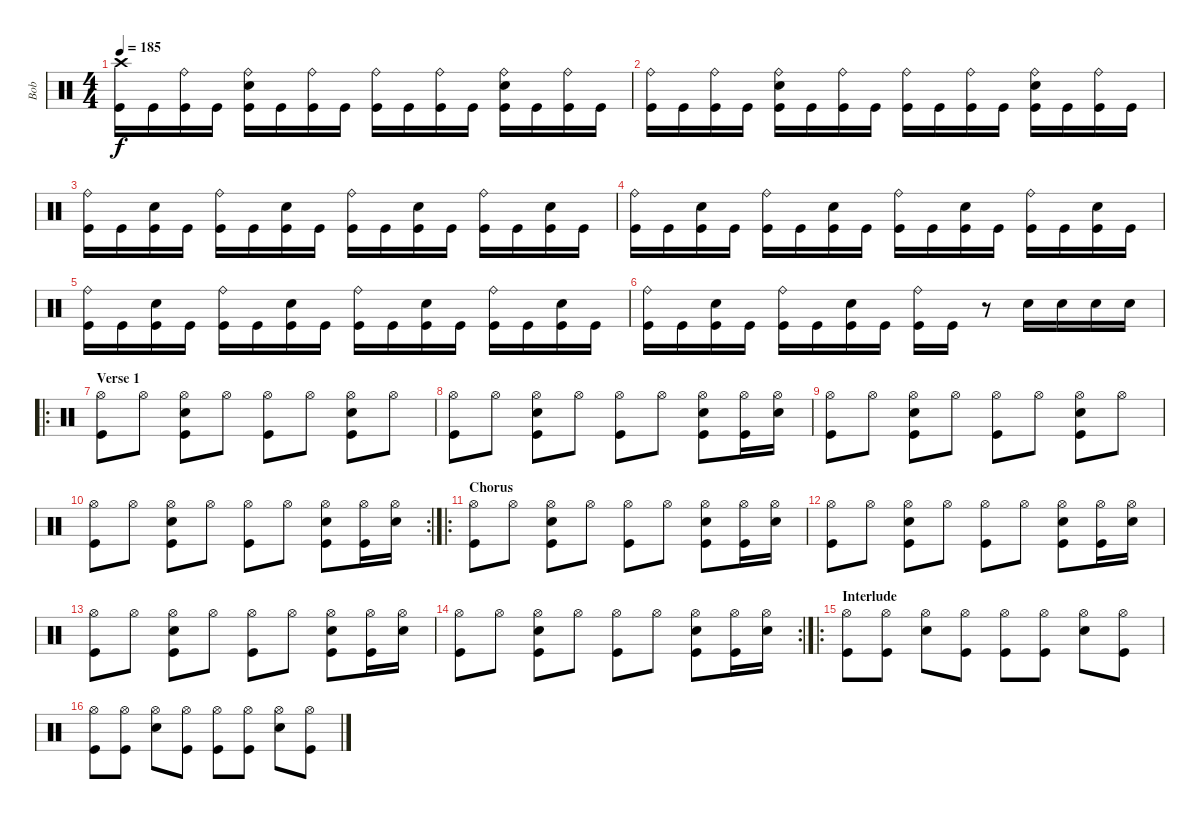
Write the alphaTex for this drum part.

\track ("Bob" "Bob") {instrument percussion}
\staff {score}
\articulation defaults
\ts (4 4)
\tempo 185
\clef neutral
\ks c
("Crash high (hit)" "Kick (hit)").16{dy f} "Kick (hit)".16 ("Ride (bell)" "Kick (hit)").16 "Kick (hit)".16 ("Ride (bell)" "Snare (hit) 2" "Kick (hit)").16 "Kick (hit)".16 ("Ride (bell)" "Kick (hit)").16 "Kick (hit)".16 ("Ride (bell)" "Kick (hit)").16 "Kick (hit)".16 ("Ride (bell)" "Kick (hit)").16 "Kick (hit)".16 ("Ride (bell)" "Snare (hit) 2" "Kick (hit)").16 "Kick (hit)".16 ("Ride (bell)" "Kick (hit)").16 "Kick (hit)".16 |
("Ride (bell)" "Kick (hit)").16 "Kick (hit)".16 ("Ride (bell)" "Kick (hit)").16 "Kick (hit)".16 ("Ride (bell)" "Snare (hit) 2" "Kick (hit)").16 "Kick (hit)".16 ("Ride (bell)" "Kick (hit)").16 "Kick (hit)".16 ("Ride (bell)" "Kick (hit)").16 "Kick (hit)".16 ("Ride (bell)" "Kick (hit)").16 "Kick (hit)".16 ("Ride (bell)" "Snare (hit) 2" "Kick (hit)").16 "Kick (hit)".16 ("Ride (bell)" "Kick (hit)").16 "Kick (hit)".16 |
("Ride (bell)" "Kick (hit)").16 "Kick (hit)".16 ("Snare (hit) 2" "Kick (hit)").16 "Kick (hit)".16 ("Ride (bell)" "Kick (hit)").16 "Kick (hit)".16 ("Snare (hit) 2" "Kick (hit)").16 "Kick (hit)".16 ("Ride (bell)" "Kick (hit)").16 "Kick (hit)".16 ("Snare (hit) 2" "Kick (hit)").16 "Kick (hit)".16 ("Ride (bell)" "Kick (hit)").16 "Kick (hit)".16 ("Snare (hit) 2" "Kick (hit)").16 "Kick (hit)".16 |
("Ride (bell)" "Kick (hit)").16 "Kick (hit)".16 ("Snare (hit) 2" "Kick (hit)").16 "Kick (hit)".16 ("Ride (bell)" "Kick (hit)").16 "Kick (hit)".16 ("Snare (hit) 2" "Kick (hit)").16 "Kick (hit)".16 ("Ride (bell)" "Kick (hit)").16 "Kick (hit)".16 ("Snare (hit) 2" "Kick (hit)").16 "Kick (hit)".16 ("Ride (bell)" "Kick (hit)").16 "Kick (hit)".16 ("Snare (hit) 2" "Kick (hit)").16 "Kick (hit)".16 |
("Ride (bell)" "Kick (hit)").16 "Kick (hit)".16 ("Snare (hit) 2" "Kick (hit)").16 "Kick (hit)".16 ("Ride (bell)" "Kick (hit)").16 "Kick (hit)".16 ("Snare (hit) 2" "Kick (hit)").16 "Kick (hit)".16 ("Ride (bell)" "Kick (hit)").16 "Kick (hit)".16 ("Snare (hit) 2" "Kick (hit)").16 "Kick (hit)".16 ("Ride (bell)" "Kick (hit)").16 "Kick (hit)".16 ("Snare (hit) 2" "Kick (hit)").16 "Kick (hit)".16 |
("Ride (bell)" "Kick (hit)").16 "Kick (hit)".16 ("Snare (hit) 2" "Kick (hit)").16 "Kick (hit)".16 ("Ride (bell)" "Kick (hit)").16 "Kick (hit)".16 ("Snare (hit) 2" "Kick (hit)").16 "Kick (hit)".16 ("Ride (bell)" "Kick (hit)").16 "Kick (hit)".16 r.8 "Snare (hit) 2".16 "Snare (hit) 2".16 "Snare (hit) 2".16 "Snare (hit) 2".16 |
\ro
\section ("" "Verse 1")
("Hi-Hat (open)" "Kick (hit)").8 "Hi-Hat (open)".8 ("Hi-Hat (open)" "Snare (hit) 2" "Kick (hit)").8 "Hi-Hat (open)".8 ("Hi-Hat (open)" "Kick (hit)").8 "Hi-Hat (open)".8 ("Hi-Hat (open)" "Snare (hit) 2" "Kick (hit)").8 "Hi-Hat (open)".8 |
("Hi-Hat (open)" "Kick (hit)").8 "Hi-Hat (open)".8 ("Hi-Hat (open)" "Snare (hit) 2" "Kick (hit)").8 "Hi-Hat (open)".8 ("Hi-Hat (open)" "Kick (hit)").8 "Hi-Hat (open)".8 ("Hi-Hat (open)" "Snare (hit) 2" "Kick (hit)").8 ("Hi-Hat (open)" "Kick (hit)").16 ("Hi-Hat (open)" "Snare (hit) 2").16 |
("Hi-Hat (open)" "Kick (hit)").8 "Hi-Hat (open)".8 ("Hi-Hat (open)" "Snare (hit) 2" "Kick (hit)").8 "Hi-Hat (open)".8 ("Hi-Hat (open)" "Kick (hit)").8 "Hi-Hat (open)".8 ("Hi-Hat (open)" "Snare (hit) 2" "Kick (hit)").8 "Hi-Hat (open)".8 |
\rc 2
("Hi-Hat (open)" "Kick (hit)").8 "Hi-Hat (open)".8 ("Hi-Hat (open)" "Snare (hit) 2" "Kick (hit)").8 "Hi-Hat (open)".8 ("Hi-Hat (open)" "Kick (hit)").8 "Hi-Hat (open)".8 ("Hi-Hat (open)" "Snare (hit) 2" "Kick (hit)").8 ("Hi-Hat (open)" "Kick (hit)").16 ("Hi-Hat (open)" "Snare (hit) 2").16 |
\ro
\section ("" "Chorus")
("Hi-Hat (open)" "Kick (hit)").8 "Hi-Hat (open)".8 ("Hi-Hat (open)" "Snare (hit) 2" "Kick (hit)").8 "Hi-Hat (open)".8 ("Hi-Hat (open)" "Kick (hit)").8 "Hi-Hat (open)".8 ("Hi-Hat (open)" "Snare (hit) 2" "Kick (hit)").8 ("Hi-Hat (open)" "Kick (hit)").16 ("Hi-Hat (open)" "Snare (hit) 2").16 |
("Hi-Hat (open)" "Kick (hit)").8 "Hi-Hat (open)".8 ("Hi-Hat (open)" "Snare (hit) 2" "Kick (hit)").8 "Hi-Hat (open)".8 ("Hi-Hat (open)" "Kick (hit)").8 "Hi-Hat (open)".8 ("Hi-Hat (open)" "Snare (hit) 2" "Kick (hit)").8 ("Hi-Hat (open)" "Kick (hit)").16 ("Hi-Hat (open)" "Snare (hit) 2").16 |
("Hi-Hat (open)" "Kick (hit)").8 "Hi-Hat (open)".8 ("Hi-Hat (open)" "Snare (hit) 2" "Kick (hit)").8 "Hi-Hat (open)".8 ("Hi-Hat (open)" "Kick (hit)").8 "Hi-Hat (open)".8 ("Hi-Hat (open)" "Snare (hit) 2" "Kick (hit)").8 ("Hi-Hat (open)" "Kick (hit)").16 ("Hi-Hat (open)" "Snare (hit) 2").16 |
\rc 2
("Hi-Hat (open)" "Kick (hit)").8 "Hi-Hat (open)".8 ("Hi-Hat (open)" "Snare (hit) 2" "Kick (hit)").8 "Hi-Hat (open)".8 ("Hi-Hat (open)" "Kick (hit)").8 "Hi-Hat (open)".8 ("Hi-Hat (open)" "Snare (hit) 2" "Kick (hit)").8 ("Hi-Hat (open)" "Kick (hit)").16 ("Hi-Hat (open)" "Snare (hit) 2").16 |
\ro
\section ("" "Interlude")
("Hi-Hat (open)" "Kick (hit)").8 ("Hi-Hat (open)" "Kick (hit)").8 ("Hi-Hat (open)" "Snare (hit) 2").8 ("Hi-Hat (open)" "Kick (hit)").8 ("Hi-Hat (open)" "Kick (hit)").8 ("Hi-Hat (open)" "Kick (hit)").8 ("Hi-Hat (open)" "Snare (hit) 2").8 ("Hi-Hat (open)" "Kick (hit)").8 |
("Hi-Hat (open)" "Kick (hit)").8 ("Hi-Hat (open)" "Kick (hit)").8 ("Hi-Hat (open)" "Snare (hit) 2").8 ("Hi-Hat (open)" "Kick (hit)").8 ("Hi-Hat (open)" "Kick (hit)").8 ("Hi-Hat (open)" "Kick (hit)").8 ("Hi-Hat (open)" "Snare (hit) 2").8 ("Hi-Hat (open)" "Kick (hit)").8
